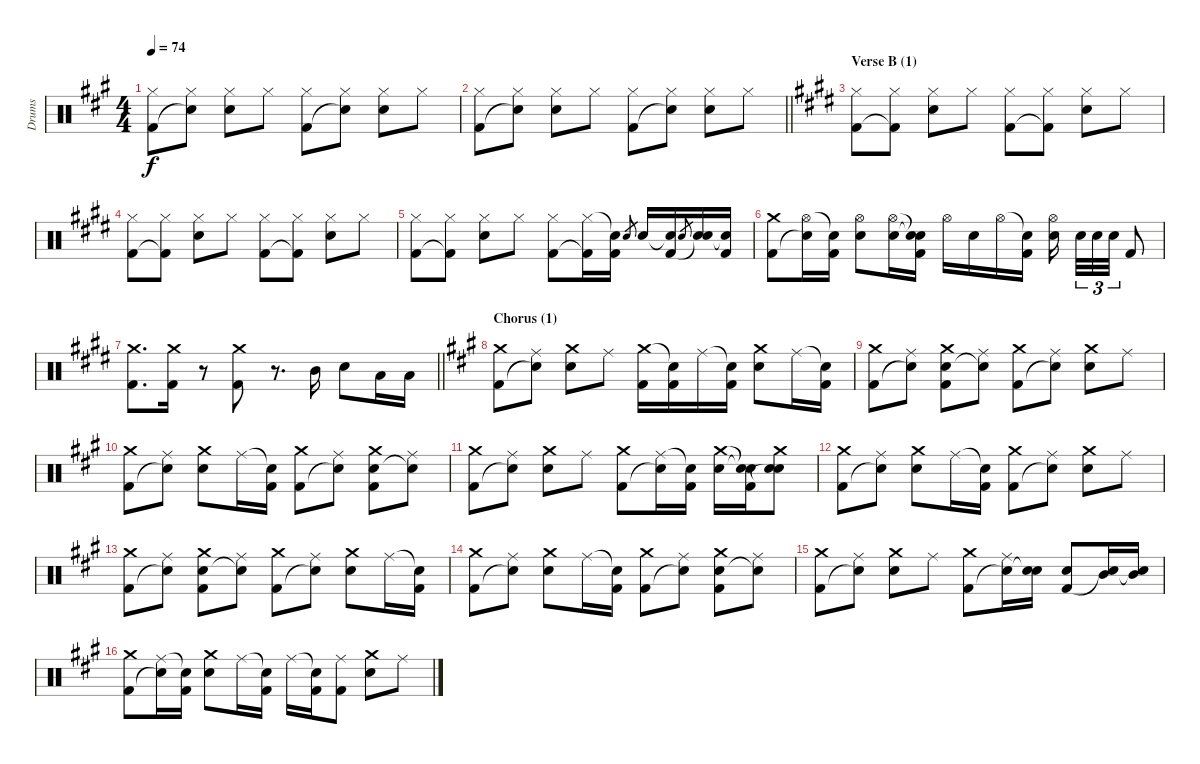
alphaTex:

\track ("Drums" "Drums") {instrument percussion}
\staff {score}
\articulation defaults
\ts (4 4)
\tempo 74
\clef neutral
\ks f#minor
("Hi-Hat (closed)" "Kick (hit) 2").8{dy f} ("Hi-Hat (closed)" "Snare (hit)"{t}).8 ("Hi-Hat (closed)" "Electric Snare (hit)").8 "Hi-Hat (closed)".8 ("Hi-Hat (closed)" "Kick (hit) 2").8 ("Hi-Hat (closed)" "Snare (hit)"{t}).8 ("Hi-Hat (closed)" "Electric Snare (hit)").8 "Hi-Hat (closed)".8 |
\barLineRight lightlight
("Hi-Hat (closed)" "Kick (hit) 2").8 ("Hi-Hat (closed)" "Snare (hit)"{t}).8 ("Hi-Hat (closed)" "Electric Snare (hit)").8 "Hi-Hat (closed)".8 ("Hi-Hat (closed)" "Kick (hit) 2").8 ("Hi-Hat (closed)" "Snare (hit)"{t}).8 ("Hi-Hat (closed)" "Electric Snare (hit)").8 "Hi-Hat (closed)".8 |
\section ("" "Verse B (1)")
\ks c#minor
("Hi-Hat (closed)" "Kick (hit) 2").8 ("Hi-Hat (closed)" "Kick (hit) 2"{t}).8 ("Hi-Hat (closed)" "Electric Snare (hit)").8 "Hi-Hat (closed)".8 ("Hi-Hat (closed)" "Kick (hit) 2").8 ("Hi-Hat (closed)" "Kick (hit) 2"{t}).8 ("Hi-Hat (closed)" "Electric Snare (hit)").8 "Hi-Hat (closed)".8 |
("Hi-Hat (closed)" "Kick (hit) 2").8 ("Hi-Hat (closed)" "Kick (hit) 2"{t}).8 ("Hi-Hat (closed)" "Electric Snare (hit)").8 "Hi-Hat (closed)".8 ("Hi-Hat (closed)" "Kick (hit) 2").8 ("Hi-Hat (closed)" "Kick (hit) 2"{t}).8 ("Hi-Hat (closed)" "Electric Snare (hit)").8 "Hi-Hat (closed)".8 |
("Hi-Hat (closed)" "Kick (hit) 2").8 ("Hi-Hat (closed)" "Kick (hit) 2"{t}).8 ("Hi-Hat (closed)" "Electric Snare (hit)").8 "Hi-Hat (closed)".8 ("Hi-Hat (closed)" "Kick (hit) 2").8 ("Hi-Hat (closed)" "Kick (hit) 2"{t}).16 ("Snare (hit)"{t} "Kick (hit) 2").16 "Electric Snare (hit)".8{gr} "Electric Snare (hit)".16 ("Snare (hit)"{t} "Kick (hit) 2").16 "Electric Snare (hit)".8{gr} ("Electric Snare (hit)" "Snare (hit)"{t}).16 ("Snare (hit)"{t} "Kick (hit) 2").16 |
("Crash medium (hit)" "Kick (hit) 2").8 ("Hi-Hat (open)" "Snare (hit)"{t}).16 ("Snare (hit)"{t} "Kick (hit) 2").16 ("Hi-Hat (open)" "Electric Snare (hit)").8 ("Hi-Hat (open)" "Electric Snare (hit)").16 ("Snare (hit)"{t} "Snare (hit)"{t} "Kick (hit) 2").16 "Hi-Hat (open)".16 "Electric Snare (hit)".16 "Hi-Hat (open)".16 ("Snare (hit)"{t} "Kick (hit) 2").16 ("Hi-Hat (open)" "Electric Snare (hit)").16 "Electric Snare (hit)".32{tu (3 2)} "Electric Snare (hit)".32{tu (3 2)} "Electric Snare (hit)".32{tu (3 2)} "Kick (hit) 2".8 |
\barLineRight lightlight
("Crash medium (hit)" "Kick (hit) 2").8{d} ("Crash medium (hit)" "Kick (hit) 2").16 r.8 ("Crash medium (hit)" "Kick (hit) 2").8 r.8{d} "Mid Tom (hit)".16 "Electric Snare (hit)".8 "Low Floor Tom (hit)".16 "Low Floor Tom (hit)".16 |
\section ("" "Chorus (1)")
\ks a
("Crash medium (hit)" "Kick (hit) 2").8 ("Ride (middle)" "Snare (hit)"{t}).8 ("Crash medium (hit)" "Electric Snare (hit)").8 "Ride (middle)".8 ("Crash medium (hit)" "Kick (hit) 2").16 ("Snare (hit)"{t} "Kick (hit) 2").16 "Ride (middle)".16 ("Snare (hit)"{t} "Kick (hit) 2").16 ("Crash medium (hit)" "Electric Snare (hit)").8 "Ride (middle)".16 ("Snare (hit)"{t} "Kick (hit) 2").16 |
("Crash medium (hit)" "Kick (hit) 2").8 ("Ride (middle)" "Snare (hit)"{t}).8 ("Crash medium (hit)" "Electric Snare (hit)" "Kick (hit) 2").8 ("Ride (middle)" "Snare (hit)"{t}).8 ("Crash medium (hit)" "Kick (hit) 2").8 ("Ride (middle)" "Snare (hit)"{t}).8 ("Crash medium (hit)" "Electric Snare (hit)").8 "Ride (middle)".8 |
("Crash medium (hit)" "Kick (hit) 2").8 ("Ride (middle)" "Snare (hit)"{t}).8 ("Crash medium (hit)" "Electric Snare (hit)").8 "Ride (middle)".16 ("Snare (hit)"{t} "Kick (hit) 2").16 ("Crash medium (hit)" "Kick (hit) 2").8 ("Ride (middle)" "Snare (hit)"{t}).8 ("Crash medium (hit)" "Electric Snare (hit)" "Kick (hit) 2").8 ("Ride (middle)" "Snare (hit)"{t}).8 |
("Crash medium (hit)" "Kick (hit) 2").8 ("Ride (middle)" "Snare (hit)"{t}).8 ("Crash medium (hit)" "Electric Snare (hit)").8 "Ride (middle)".8 ("Crash medium (hit)" "Kick (hit) 2").8 ("Ride (middle)" "Snare (hit)"{t}).16 ("Snare (hit)"{t} "Kick (hit) 2").16 ("Crash medium (hit)" "Electric Snare (hit)").16 ("Snare (hit)"{t} "Snare (hit)"{t} "Kick (hit) 2").16 ("Crash medium (hit)" "Electric Snare (hit)" "Snare (hit)"{t}).8 |
("Crash medium (hit)" "Kick (hit) 2").8 ("Ride (middle)" "Snare (hit)"{t}).8 ("Crash medium (hit)" "Electric Snare (hit)").8 "Ride (middle)".16 ("Snare (hit)"{t} "Kick (hit) 2").16 ("Crash medium (hit)" "Kick (hit) 2").8 ("Ride (middle)" "Snare (hit)"{t}).8 ("Crash medium (hit)" "Electric Snare (hit)").8 "Ride (middle)".8 |
("Crash medium (hit)" "Kick (hit) 2").8 ("Ride (middle)" "Snare (hit)"{t}).8 ("Crash medium (hit)" "Electric Snare (hit)" "Kick (hit) 2").8 ("Ride (middle)" "Snare (hit)"{t}).8 ("Crash medium (hit)" "Kick (hit) 2").8 ("Ride (middle)" "Snare (hit)"{t}).8 ("Crash medium (hit)" "Electric Snare (hit)").8 "Ride (middle)".16 ("Snare (hit)"{t} "Kick (hit) 2").16 |
("Crash medium (hit)" "Kick (hit) 2").8 ("Ride (middle)" "Snare (hit)"{t}).8 ("Crash medium (hit)" "Electric Snare (hit)").8 "Ride (middle)".16 ("Snare (hit)"{t} "Kick (hit) 2").16 ("Crash medium (hit)" "Kick (hit) 2").8 ("Ride (middle)" "Snare (hit)"{t}).8 ("Crash medium (hit)" "Electric Snare (hit)" "Kick (hit) 2").8 ("Ride (middle)" "Snare (hit)"{t}).8 |
("Crash medium (hit)" "Kick (hit) 2").8 ("Ride (middle)" "Snare (hit)"{t}).8 ("Crash medium (hit)" "Electric Snare (hit)").8 "Ride (middle)".8 ("Crash medium (hit)" "Kick (hit) 2").8 ("Ride (middle)" "Snare (hit)"{t}).16 ("Electric Snare (hit)" "Snare (hit)"{t}).16 ("Electric Snare (hit)" "Kick (hit) 2").8 ("Mid Tom (hit)" "Snare (hit)"{t}).16 ("Mid Tom (hit)" "Snare (hit)"{t}).16 |
("Crash medium (hit)" "Kick (hit) 2").8 ("Ride (middle)" "Snare (hit)"{t}).16 ("Snare (hit)"{t} "Kick (hit) 2").16 ("Crash medium (hit)" "Electric Snare (hit)").8 "Ride (middle)".16 ("Snare (hit)"{t} "Kick (hit) 2").16 "Ride (middle)".16 ("Snare (hit)"{t} "Kick (hit) 2").16 ("Ride (middle)" "Kick (hit) 2").8 ("Crash medium (hit)" "Electric Snare (hit)").8 "Ride (middle)".8
